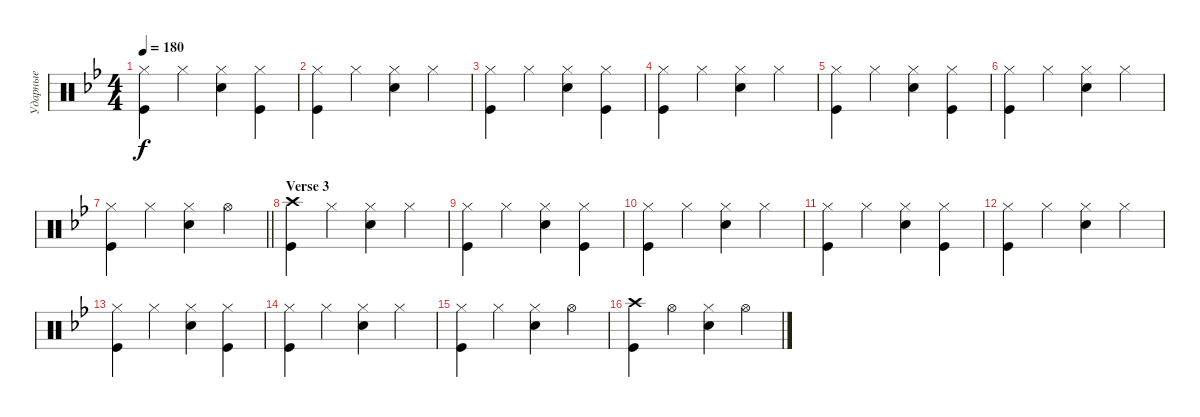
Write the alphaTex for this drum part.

\track ("Ударные" "Ударные") {instrument percussion}
\staff {score}
\articulation defaults
\ts (4 4)
\tempo 180
\clef neutral
\ks gminor
("Hi-Hat (closed)" "Kick (hit)").4{dy f} "Hi-Hat (closed)".4 ("Snare (hit) 2" "Hi-Hat (closed)").4 ("Hi-Hat (closed)" "Kick (hit)").4 |
("Hi-Hat (closed)" "Kick (hit)").4 "Hi-Hat (closed)".4 ("Snare (hit) 2" "Hi-Hat (closed)").4 "Hi-Hat (closed)".4 |
("Hi-Hat (closed)" "Kick (hit)").4 "Hi-Hat (closed)".4 ("Snare (hit) 2" "Hi-Hat (closed)").4 ("Hi-Hat (closed)" "Kick (hit)").4 |
("Hi-Hat (closed)" "Kick (hit)").4 "Hi-Hat (closed)".4 ("Snare (hit) 2" "Hi-Hat (closed)").4 "Hi-Hat (closed)".4 |
("Hi-Hat (closed)" "Kick (hit)").4 "Hi-Hat (closed)".4 ("Snare (hit) 2" "Hi-Hat (closed)").4 ("Hi-Hat (closed)" "Kick (hit)").4 |
("Hi-Hat (closed)" "Kick (hit)").4 "Hi-Hat (closed)".4 ("Snare (hit) 2" "Hi-Hat (closed)").4 "Hi-Hat (closed)".4 |
\barLineRight lightlight
("Hi-Hat (closed)" "Kick (hit)").4 "Hi-Hat (closed)".4 ("Snare (hit) 2" "Hi-Hat (closed)").4 "Hi-Hat (open)".4 |
\section ("" "Verse 3")
("Kick (hit)" "Crash high (hit)").4 "Hi-Hat (closed)".4 ("Hi-Hat (closed)" "Snare (hit) 2").4 "Hi-Hat (closed)".4 |
("Hi-Hat (closed)" "Kick (hit)").4 "Hi-Hat (closed)".4 ("Snare (hit) 2" "Hi-Hat (closed)").4 ("Hi-Hat (closed)" "Kick (hit)").4 |
("Hi-Hat (closed)" "Kick (hit)").4 "Hi-Hat (closed)".4 ("Snare (hit) 2" "Hi-Hat (closed)").4 "Hi-Hat (closed)".4 |
("Hi-Hat (closed)" "Kick (hit)").4 "Hi-Hat (closed)".4 ("Snare (hit) 2" "Hi-Hat (closed)").4 ("Hi-Hat (closed)" "Kick (hit)").4 |
("Hi-Hat (closed)" "Kick (hit)").4 "Hi-Hat (closed)".4 ("Snare (hit) 2" "Hi-Hat (closed)").4 "Hi-Hat (closed)".4 |
("Hi-Hat (closed)" "Kick (hit)").4 "Hi-Hat (closed)".4 ("Snare (hit) 2" "Hi-Hat (closed)").4 ("Hi-Hat (closed)" "Kick (hit)").4 |
("Hi-Hat (closed)" "Kick (hit)").4 "Hi-Hat (closed)".4 ("Snare (hit) 2" "Hi-Hat (closed)").4 "Hi-Hat (closed)".4 |
("Hi-Hat (closed)" "Kick (hit)").4 "Hi-Hat (closed)".4 ("Snare (hit) 2" "Hi-Hat (closed)").4 "Hi-Hat (open)".4 |
("Crash high (hit)" "Kick (hit)").4 "Hi-Hat (open)".4 ("Hi-Hat (closed)" "Snare (hit) 2").4 "Hi-Hat (open)".4
